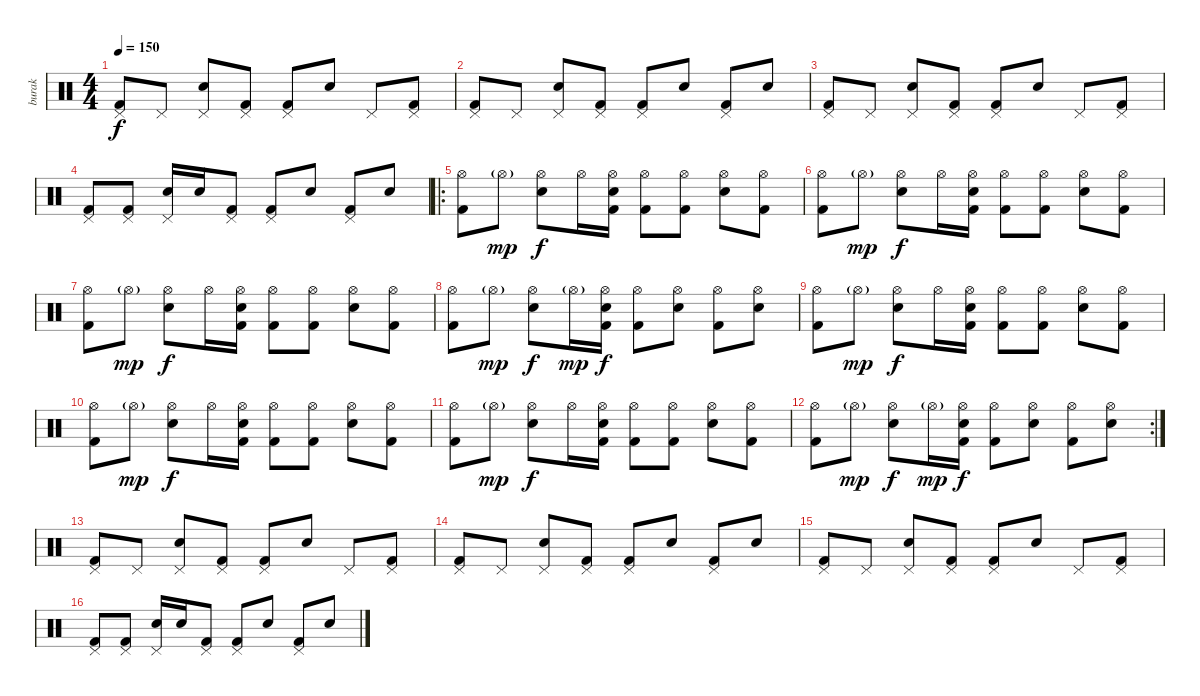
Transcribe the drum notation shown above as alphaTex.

\track ("burak" "burak") {instrument percussion}
\staff {score}
\articulation defaults
\ts (4 4)
\tempo 150
\clef neutral
\ks c
("Pedal Hi-Hat (hit)" "Kick (hit) 2").8{dy f} "Pedal Hi-Hat (hit)".8 ("Pedal Hi-Hat (hit)" "Electric Snare (hit)").8 ("Pedal Hi-Hat (hit)" "Kick (hit) 2").8 ("Pedal Hi-Hat (hit)" "Kick (hit) 2").8 "Electric Snare (hit)".8 "Pedal Hi-Hat (hit)".8 ("Pedal Hi-Hat (hit)" "Kick (hit) 2").8 |
("Pedal Hi-Hat (hit)" "Kick (hit) 2").8 "Pedal Hi-Hat (hit)".8 ("Pedal Hi-Hat (hit)" "Electric Snare (hit)").8 ("Pedal Hi-Hat (hit)" "Kick (hit) 2").8 ("Pedal Hi-Hat (hit)" "Kick (hit) 2").8 "Electric Snare (hit)".8 ("Pedal Hi-Hat (hit)" "Kick (hit) 2").8 "Electric Snare (hit)".8 |
("Pedal Hi-Hat (hit)" "Kick (hit) 2").8 "Pedal Hi-Hat (hit)".8 ("Pedal Hi-Hat (hit)" "Electric Snare (hit)").8 ("Pedal Hi-Hat (hit)" "Kick (hit) 2").8 ("Pedal Hi-Hat (hit)" "Kick (hit) 2").8 "Electric Snare (hit)".8 "Pedal Hi-Hat (hit)".8 ("Pedal Hi-Hat (hit)" "Kick (hit) 2").8 |
("Pedal Hi-Hat (hit)" "Kick (hit) 2").8 ("Pedal Hi-Hat (hit)" "Kick (hit) 2").8 ("Pedal Hi-Hat (hit)" "Electric Snare (hit)").16 "Electric Snare (hit)".16 ("Pedal Hi-Hat (hit)" "Kick (hit) 2").8 ("Pedal Hi-Hat (hit)" "Kick (hit) 2").8 "Electric Snare (hit)".8 ("Pedal Hi-Hat (hit)" "Kick (hit) 2").8 "Electric Snare (hit)".8 |
\ro
("Hi-Hat (open)" "Kick (hit) 2").8 "Hi-Hat (open)"{g}.8{dy mp} ("Hi-Hat (open)" "Electric Snare (hit)").8{dy f} "Hi-Hat (open)".16 ("Hi-Hat (open)" "Kick (hit) 2" "Electric Snare (hit)").16 ("Hi-Hat (open)" "Kick (hit) 2").8 ("Hi-Hat (open)" "Kick (hit) 2").8 ("Hi-Hat (open)" "Electric Snare (hit)").8 ("Hi-Hat (open)" "Kick (hit) 2").8 |
("Hi-Hat (open)" "Kick (hit) 2").8 "Hi-Hat (open)"{g}.8{dy mp} ("Hi-Hat (open)" "Electric Snare (hit)").8{dy f} "Hi-Hat (open)".16 ("Hi-Hat (open)" "Kick (hit) 2" "Electric Snare (hit)").16 ("Hi-Hat (open)" "Kick (hit) 2").8 ("Hi-Hat (open)" "Kick (hit) 2").8 ("Hi-Hat (open)" "Electric Snare (hit)").8 ("Hi-Hat (open)" "Kick (hit) 2").8 |
("Hi-Hat (open)" "Kick (hit) 2").8 "Hi-Hat (open)"{g}.8{dy mp} ("Hi-Hat (open)" "Electric Snare (hit)").8{dy f} "Hi-Hat (open)".16 ("Hi-Hat (open)" "Kick (hit) 2" "Electric Snare (hit)").16 ("Hi-Hat (open)" "Kick (hit) 2").8 ("Hi-Hat (open)" "Kick (hit) 2").8 ("Hi-Hat (open)" "Electric Snare (hit)").8 ("Hi-Hat (open)" "Kick (hit) 2").8 |
("Hi-Hat (open)" "Kick (hit) 2").8 "Hi-Hat (open)"{g}.8{dy mp} ("Hi-Hat (open)" "Electric Snare (hit)").8{dy f} "Hi-Hat (open)"{g}.16{dy mp} ("Hi-Hat (open)" "Kick (hit) 2" "Electric Snare (hit)").16{dy f} ("Hi-Hat (open)" "Kick (hit) 2").8 ("Hi-Hat (open)" "Electric Snare (hit)").8 ("Hi-Hat (open)" "Kick (hit) 2").8 ("Hi-Hat (open)" "Electric Snare (hit)").8 |
("Hi-Hat (open)" "Kick (hit) 2").8 "Hi-Hat (open)"{g}.8{dy mp} ("Hi-Hat (open)" "Electric Snare (hit)").8{dy f} "Hi-Hat (open)".16 ("Hi-Hat (open)" "Kick (hit) 2" "Electric Snare (hit)").16 ("Hi-Hat (open)" "Kick (hit) 2").8 ("Hi-Hat (open)" "Kick (hit) 2").8 ("Hi-Hat (open)" "Electric Snare (hit)").8 ("Hi-Hat (open)" "Kick (hit) 2").8 |
("Hi-Hat (open)" "Kick (hit) 2").8 "Hi-Hat (open)"{g}.8{dy mp} ("Hi-Hat (open)" "Electric Snare (hit)").8{dy f} "Hi-Hat (open)".16 ("Hi-Hat (open)" "Kick (hit) 2" "Electric Snare (hit)").16 ("Hi-Hat (open)" "Kick (hit) 2").8 ("Hi-Hat (open)" "Kick (hit) 2").8 ("Hi-Hat (open)" "Electric Snare (hit)").8 ("Hi-Hat (open)" "Kick (hit) 2").8 |
("Hi-Hat (open)" "Kick (hit) 2").8 "Hi-Hat (open)"{g}.8{dy mp} ("Hi-Hat (open)" "Electric Snare (hit)").8{dy f} "Hi-Hat (open)".16 ("Hi-Hat (open)" "Kick (hit) 2" "Electric Snare (hit)").16 ("Hi-Hat (open)" "Kick (hit) 2").8 ("Hi-Hat (open)" "Kick (hit) 2").8 ("Hi-Hat (open)" "Electric Snare (hit)").8 ("Hi-Hat (open)" "Kick (hit) 2").8 |
\rc 2
("Hi-Hat (open)" "Kick (hit) 2").8 "Hi-Hat (open)"{g}.8{dy mp} ("Hi-Hat (open)" "Electric Snare (hit)").8{dy f} "Hi-Hat (open)"{g}.16{dy mp} ("Hi-Hat (open)" "Kick (hit) 2" "Electric Snare (hit)").16{dy f} ("Hi-Hat (open)" "Kick (hit) 2").8 ("Hi-Hat (open)" "Electric Snare (hit)").8 ("Hi-Hat (open)" "Kick (hit) 2").8 ("Hi-Hat (open)" "Electric Snare (hit)").8 |
("Pedal Hi-Hat (hit)" "Kick (hit) 2").8 "Pedal Hi-Hat (hit)".8 ("Pedal Hi-Hat (hit)" "Electric Snare (hit)").8 ("Pedal Hi-Hat (hit)" "Kick (hit) 2").8 ("Pedal Hi-Hat (hit)" "Kick (hit) 2").8 "Electric Snare (hit)".8 "Pedal Hi-Hat (hit)".8 ("Pedal Hi-Hat (hit)" "Kick (hit) 2").8 |
("Pedal Hi-Hat (hit)" "Kick (hit) 2").8 "Pedal Hi-Hat (hit)".8 ("Pedal Hi-Hat (hit)" "Electric Snare (hit)").8 ("Pedal Hi-Hat (hit)" "Kick (hit) 2").8 ("Pedal Hi-Hat (hit)" "Kick (hit) 2").8 "Electric Snare (hit)".8 ("Pedal Hi-Hat (hit)" "Kick (hit) 2").8 "Electric Snare (hit)".8 |
("Pedal Hi-Hat (hit)" "Kick (hit) 2").8 "Pedal Hi-Hat (hit)".8 ("Pedal Hi-Hat (hit)" "Electric Snare (hit)").8 ("Pedal Hi-Hat (hit)" "Kick (hit) 2").8 ("Pedal Hi-Hat (hit)" "Kick (hit) 2").8 "Electric Snare (hit)".8 "Pedal Hi-Hat (hit)".8 ("Pedal Hi-Hat (hit)" "Kick (hit) 2").8 |
("Pedal Hi-Hat (hit)" "Kick (hit) 2").8 ("Pedal Hi-Hat (hit)" "Kick (hit) 2").8 ("Pedal Hi-Hat (hit)" "Electric Snare (hit)").16 "Electric Snare (hit)".16 ("Pedal Hi-Hat (hit)" "Kick (hit) 2").8 ("Pedal Hi-Hat (hit)" "Kick (hit) 2").8 "Electric Snare (hit)".8 ("Pedal Hi-Hat (hit)" "Kick (hit) 2").8 "Electric Snare (hit)".8
